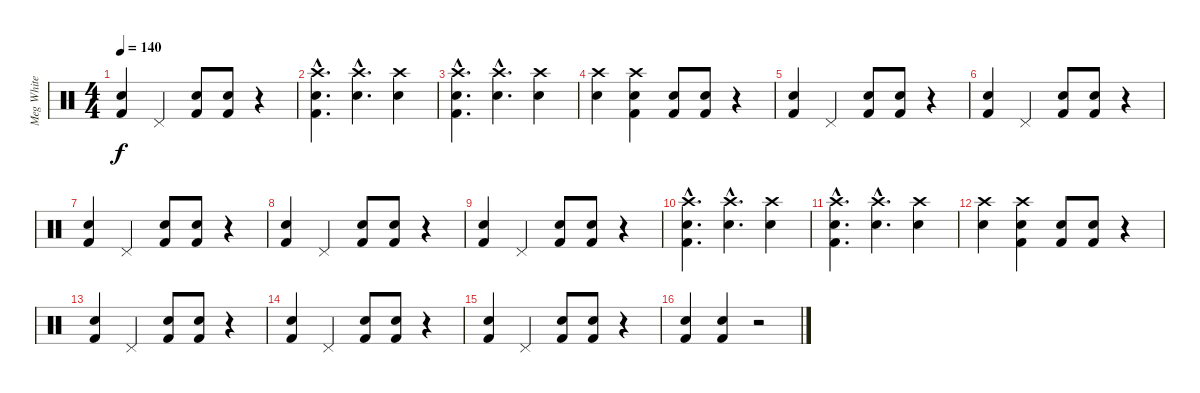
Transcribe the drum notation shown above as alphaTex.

\track ("Meg White" "Meg White") {instrument percussion}
\staff {score}
\articulation defaults
\ts (4 4)
\tempo 140
\clef neutral
\ks c
("Electric Snare (hit)" "Kick (hit) 2").4{dy f} "Pedal Hi-Hat (hit)".4 ("Electric Snare (hit)" "Kick (hit) 2").8 ("Electric Snare (hit)" "Kick (hit) 2").8 r.4 |
("Crash high (hit)"{hac} "Electric Snare (hit)"{hac} "Kick (hit) 2"{hac}).4{d} ("Crash high (hit)"{hac} "Electric Snare (hit)"{hac}).4{d} ("Crash high (hit)" "Electric Snare (hit)").4 |
("Crash high (hit)"{hac} "Electric Snare (hit)"{hac} "Kick (hit) 2"{hac}).4{d} ("Crash high (hit)"{hac} "Electric Snare (hit)"{hac}).4{d} ("Crash high (hit)" "Electric Snare (hit)").4 |
("Crash high (hit)" "Electric Snare (hit)").4 ("Crash high (hit)" "Electric Snare (hit)" "Kick (hit) 2").4 ("Electric Snare (hit)" "Kick (hit) 2").8 ("Electric Snare (hit)" "Kick (hit) 2").8 r.4 |
("Electric Snare (hit)" "Kick (hit) 2").4 "Pedal Hi-Hat (hit)".4 ("Electric Snare (hit)" "Kick (hit) 2").8 ("Electric Snare (hit)" "Kick (hit) 2").8 r.4 |
("Electric Snare (hit)" "Kick (hit) 2").4 "Pedal Hi-Hat (hit)".4 ("Electric Snare (hit)" "Kick (hit) 2").8 ("Electric Snare (hit)" "Kick (hit) 2").8 r.4 |
("Electric Snare (hit)" "Kick (hit) 2").4 "Pedal Hi-Hat (hit)".4 ("Electric Snare (hit)" "Kick (hit) 2").8 ("Electric Snare (hit)" "Kick (hit) 2").8 r.4 |
("Electric Snare (hit)" "Kick (hit) 2").4 "Pedal Hi-Hat (hit)".4 ("Electric Snare (hit)" "Kick (hit) 2").8 ("Electric Snare (hit)" "Kick (hit) 2").8 r.4 |
("Electric Snare (hit)" "Kick (hit) 2").4 "Pedal Hi-Hat (hit)".4 ("Electric Snare (hit)" "Kick (hit) 2").8 ("Electric Snare (hit)" "Kick (hit) 2").8 r.4 |
("Crash high (hit)"{hac} "Electric Snare (hit)"{hac} "Kick (hit) 2"{hac}).4{d} ("Crash high (hit)"{hac} "Electric Snare (hit)"{hac}).4{d} ("Crash high (hit)" "Electric Snare (hit)").4 |
("Crash high (hit)"{hac} "Electric Snare (hit)"{hac} "Kick (hit) 2"{hac}).4{d} ("Crash high (hit)"{hac} "Electric Snare (hit)"{hac}).4{d} ("Crash high (hit)" "Electric Snare (hit)").4 |
("Crash high (hit)" "Electric Snare (hit)").4 ("Crash high (hit)" "Electric Snare (hit)" "Kick (hit) 2").4 ("Electric Snare (hit)" "Kick (hit) 2").8 ("Electric Snare (hit)" "Kick (hit) 2").8 r.4 |
("Electric Snare (hit)" "Kick (hit) 2").4 "Pedal Hi-Hat (hit)".4 ("Electric Snare (hit)" "Kick (hit) 2").8 ("Electric Snare (hit)" "Kick (hit) 2").8 r.4 |
("Electric Snare (hit)" "Kick (hit) 2").4 "Pedal Hi-Hat (hit)".4 ("Electric Snare (hit)" "Kick (hit) 2").8 ("Electric Snare (hit)" "Kick (hit) 2").8 r.4 |
("Electric Snare (hit)" "Kick (hit) 2").4 "Pedal Hi-Hat (hit)".4 ("Electric Snare (hit)" "Kick (hit) 2").8 ("Electric Snare (hit)" "Kick (hit) 2").8 r.4 |
("Electric Snare (hit)" "Kick (hit) 2").4 ("Electric Snare (hit)" "Kick (hit) 2").4 r.2
